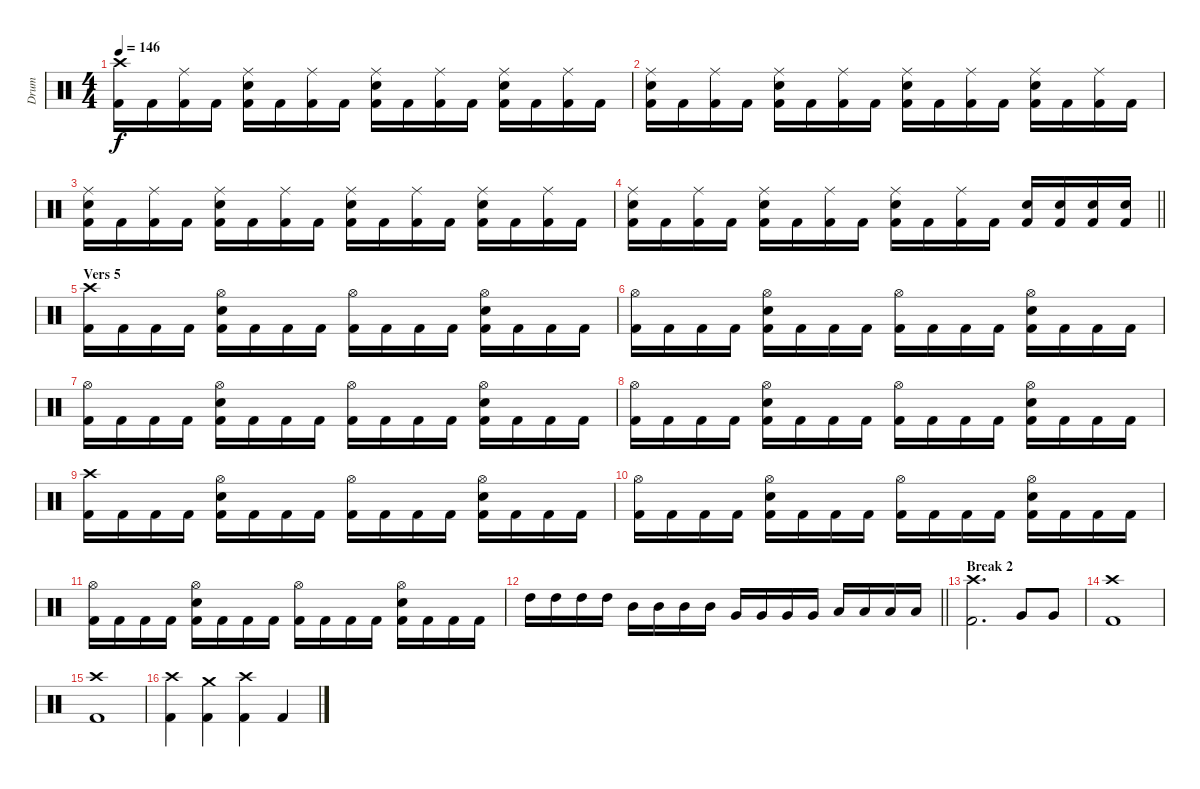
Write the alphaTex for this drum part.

\track ("Drum" "Drum") {instrument percussion}
\staff {score}
\articulation defaults
\ts (4 4)
\tempo 146
\clef neutral
\ks c
("Crash high (hit)" "Kick (hit) 2").16{dy f} "Kick (hit) 2".16 ("Ride (middle)" "Kick (hit) 2").16 "Kick (hit) 2".16 ("Ride (middle)" "Electric Snare (hit)" "Kick (hit) 2").16 "Kick (hit) 2".16 ("Ride (middle)" "Kick (hit) 2").16 "Kick (hit) 2".16 ("Ride (middle)" "Electric Snare (hit)" "Kick (hit) 2").16 "Kick (hit) 2".16 ("Ride (middle)" "Kick (hit) 2").16 "Kick (hit) 2".16 ("Ride (middle)" "Electric Snare (hit)" "Kick (hit) 2").16 "Kick (hit) 2".16 ("Ride (middle)" "Kick (hit) 2").16 "Kick (hit) 2".16 |
("Ride (middle)" "Electric Snare (hit)" "Kick (hit) 2").16 "Kick (hit) 2".16 ("Ride (middle)" "Kick (hit) 2").16 "Kick (hit) 2".16 ("Ride (middle)" "Electric Snare (hit)" "Kick (hit) 2").16 "Kick (hit) 2".16 ("Ride (middle)" "Kick (hit) 2").16 "Kick (hit) 2".16 ("Ride (middle)" "Electric Snare (hit)" "Kick (hit) 2").16 "Kick (hit) 2".16 ("Ride (middle)" "Kick (hit) 2").16 "Kick (hit) 2".16 ("Ride (middle)" "Electric Snare (hit)" "Kick (hit) 2").16 "Kick (hit) 2".16 ("Ride (middle)" "Kick (hit) 2").16 "Kick (hit) 2".16 |
("Ride (middle)" "Electric Snare (hit)" "Kick (hit) 2").16 "Kick (hit) 2".16 ("Ride (middle)" "Kick (hit) 2").16 "Kick (hit) 2".16 ("Ride (middle)" "Electric Snare (hit)" "Kick (hit) 2").16 "Kick (hit) 2".16 ("Ride (middle)" "Kick (hit) 2").16 "Kick (hit) 2".16 ("Ride (middle)" "Electric Snare (hit)" "Kick (hit) 2").16 "Kick (hit) 2".16 ("Ride (middle)" "Kick (hit) 2").16 "Kick (hit) 2".16 ("Ride (middle)" "Electric Snare (hit)" "Kick (hit) 2").16 "Kick (hit) 2".16 ("Ride (middle)" "Kick (hit) 2").16 "Kick (hit) 2".16 |
\barLineRight lightlight
("Ride (middle)" "Electric Snare (hit)" "Kick (hit) 2").16 "Kick (hit) 2".16 ("Ride (middle)" "Kick (hit) 2").16 "Kick (hit) 2".16 ("Ride (middle)" "Electric Snare (hit)" "Kick (hit) 2").16 "Kick (hit) 2".16 ("Ride (middle)" "Kick (hit) 2").16 "Kick (hit) 2".16 ("Ride (middle)" "Electric Snare (hit)" "Kick (hit) 2").16 "Kick (hit) 2".16 ("Ride (middle)" "Kick (hit) 2").16 "Kick (hit) 2".16 ("Electric Snare (hit)" "Kick (hit) 2").16 ("Electric Snare (hit)" "Kick (hit) 2").16 ("Electric Snare (hit)" "Kick (hit) 2").16 ("Electric Snare (hit)" "Kick (hit) 2").16 |
\section ("" "Vers 5")
("Crash high (hit)" "Kick (hit) 2").16 "Kick (hit) 2".16 "Kick (hit) 2".16 "Kick (hit) 2".16 ("Hi-Hat (open)" "Electric Snare (hit)" "Kick (hit) 2").16 "Kick (hit) 2".16 "Kick (hit) 2".16 "Kick (hit) 2".16 ("Hi-Hat (open)" "Kick (hit) 2").16 "Kick (hit) 2".16 "Kick (hit) 2".16 "Kick (hit) 2".16 ("Hi-Hat (open)" "Electric Snare (hit)" "Kick (hit) 2").16 "Kick (hit) 2".16 "Kick (hit) 2".16 "Kick (hit) 2".16 |
("Hi-Hat (open)" "Kick (hit) 2").16 "Kick (hit) 2".16 "Kick (hit) 2".16 "Kick (hit) 2".16 ("Hi-Hat (open)" "Electric Snare (hit)" "Kick (hit) 2").16 "Kick (hit) 2".16 "Kick (hit) 2".16 "Kick (hit) 2".16 ("Hi-Hat (open)" "Kick (hit) 2").16 "Kick (hit) 2".16 "Kick (hit) 2".16 "Kick (hit) 2".16 ("Hi-Hat (open)" "Electric Snare (hit)" "Kick (hit) 2").16 "Kick (hit) 2".16 "Kick (hit) 2".16 "Kick (hit) 2".16 |
("Hi-Hat (open)" "Kick (hit) 2").16 "Kick (hit) 2".16 "Kick (hit) 2".16 "Kick (hit) 2".16 ("Hi-Hat (open)" "Electric Snare (hit)" "Kick (hit) 2").16 "Kick (hit) 2".16 "Kick (hit) 2".16 "Kick (hit) 2".16 ("Hi-Hat (open)" "Kick (hit) 2").16 "Kick (hit) 2".16 "Kick (hit) 2".16 "Kick (hit) 2".16 ("Hi-Hat (open)" "Electric Snare (hit)" "Kick (hit) 2").16 "Kick (hit) 2".16 "Kick (hit) 2".16 "Kick (hit) 2".16 |
("Hi-Hat (open)" "Kick (hit) 2").16 "Kick (hit) 2".16 "Kick (hit) 2".16 "Kick (hit) 2".16 ("Hi-Hat (open)" "Electric Snare (hit)" "Kick (hit) 2").16 "Kick (hit) 2".16 "Kick (hit) 2".16 "Kick (hit) 2".16 ("Hi-Hat (open)" "Kick (hit) 2").16 "Kick (hit) 2".16 "Kick (hit) 2".16 "Kick (hit) 2".16 ("Hi-Hat (open)" "Electric Snare (hit)" "Kick (hit) 2").16 "Kick (hit) 2".16 "Kick (hit) 2".16 "Kick (hit) 2".16 |
("Crash high (hit)" "Kick (hit) 2").16 "Kick (hit) 2".16 "Kick (hit) 2".16 "Kick (hit) 2".16 ("Hi-Hat (open)" "Electric Snare (hit)" "Kick (hit) 2").16 "Kick (hit) 2".16 "Kick (hit) 2".16 "Kick (hit) 2".16 ("Hi-Hat (open)" "Kick (hit) 2").16 "Kick (hit) 2".16 "Kick (hit) 2".16 "Kick (hit) 2".16 ("Hi-Hat (open)" "Electric Snare (hit)" "Kick (hit) 2").16 "Kick (hit) 2".16 "Kick (hit) 2".16 "Kick (hit) 2".16 |
("Hi-Hat (open)" "Kick (hit) 2").16 "Kick (hit) 2".16 "Kick (hit) 2".16 "Kick (hit) 2".16 ("Hi-Hat (open)" "Electric Snare (hit)" "Kick (hit) 2").16 "Kick (hit) 2".16 "Kick (hit) 2".16 "Kick (hit) 2".16 ("Hi-Hat (open)" "Kick (hit) 2").16 "Kick (hit) 2".16 "Kick (hit) 2".16 "Kick (hit) 2".16 ("Hi-Hat (open)" "Electric Snare (hit)" "Kick (hit) 2").16 "Kick (hit) 2".16 "Kick (hit) 2".16 "Kick (hit) 2".16 |
("Hi-Hat (open)" "Kick (hit) 2").16 "Kick (hit) 2".16 "Kick (hit) 2".16 "Kick (hit) 2".16 ("Hi-Hat (open)" "Electric Snare (hit)" "Kick (hit) 2").16 "Kick (hit) 2".16 "Kick (hit) 2".16 "Kick (hit) 2".16 ("Hi-Hat (open)" "Kick (hit) 2").16 "Kick (hit) 2".16 "Kick (hit) 2".16 "Kick (hit) 2".16 ("Hi-Hat (open)" "Electric Snare (hit)" "Kick (hit) 2").16 "Kick (hit) 2".16 "Kick (hit) 2".16 "Kick (hit) 2".16 |
\barLineRight lightlight "High Tom (hit)".16 "High Tom (hit)".16 "High Tom (hit)".16 "High Tom (hit)".16 "Mid Tom (hit)".16 "Mid Tom (hit)".16 "Mid Tom (hit)".16 "Mid Tom (hit)".16 "Very Low Tom (hit)".16 "Very Low Tom (hit)".16 "Very Low Tom (hit)".16 "Very Low Tom (hit)".16 "Low Floor Tom (hit)".16 "Low Floor Tom (hit)".16 "Low Floor Tom (hit)".16 "Low Floor Tom (hit)".16
|
\section ("" "Break 2")
("Crash high (hit)" "Kick (hit) 2").2{d} "Very Low Tom (hit)".8 "Very Low Tom (hit)".8 |
("Crash high (hit)" "Kick (hit) 2").1 |
("Crash high (hit)" "Kick (hit) 2").1 |
("Crash high (hit)" "Kick (hit) 2").4 ("Crash medium (hit)" "Kick (hit) 2").4 ("Crash high (hit)" "Kick (hit) 2").4 "Kick (hit) 2".4
